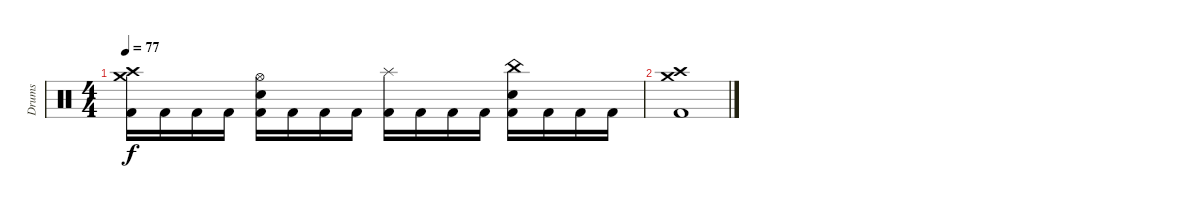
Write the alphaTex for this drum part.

\track ("Drums" "Drums") {instrument percussion}
\staff {score}
\articulation defaults
\ts (4 4)
\tempo 77
\clef neutral
\ks c
("Kick (hit) 2" "Crash high (hit)" "Crash medium (hit)").16{dy f} "Kick (hit) 2".16 "Kick (hit) 2".16 "Kick (hit) 2".16 ("Kick (hit) 2" "Electric Snare (hit)" "Hi-Hat (open)").16 "Kick (hit) 2".16 "Kick (hit) 2".16 "Kick (hit) 2".16 ("Kick (hit) 2" "Splash (hit)").16 "Kick (hit) 2".16 "Kick (hit) 2".16 "Kick (hit) 2".16 ("Kick (hit) 2" "Electric Snare (hit)" "China (hit)").16 "Kick (hit) 2".16 "Kick (hit) 2".16 "Kick (hit) 2".16 |
("Kick (hit) 2" "Crash high (hit)" "Crash medium (hit)").1
